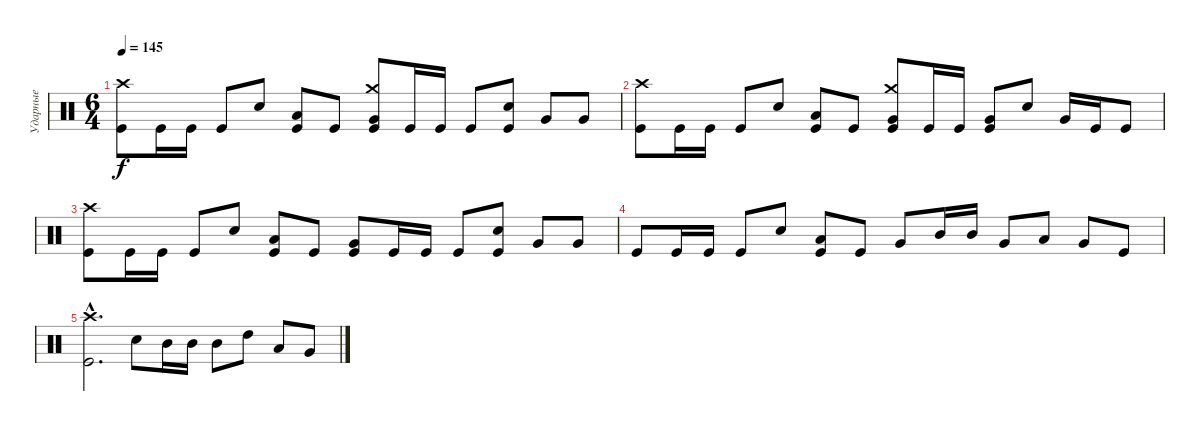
\track ("Ударные" "Ударные") {instrument percussion}
\staff {score}
\articulation defaults
\ts (6 4)
\tempo 145
\clef neutral
\ks c
("Crash high (hit)" "Kick (hit)").8{dy f} "Kick (hit)".16 "Kick (hit)".16 "Kick (hit)".8 "Electric Snare (hit)".8 ("Low Tom (hit)" "Kick (hit)").8 "Kick (hit)".8 ("Crash medium (hit)" "Very Low Tom (hit)" "Kick (hit)").8 "Kick (hit)".16 "Kick (hit)".16 "Kick (hit)".8 ("Electric Snare (hit)" "Kick (hit)").8 "Very Low Tom (hit)".8 "Very Low Tom (hit)".8 |
("Crash high (hit)" "Kick (hit)").8 "Kick (hit)".16 "Kick (hit)".16 "Kick (hit)".8 "Electric Snare (hit)".8 ("Low Tom (hit)" "Kick (hit)").8 "Kick (hit)".8 ("Crash medium (hit)" "Very Low Tom (hit)" "Kick (hit)").8 "Kick (hit)".16 "Kick (hit)".16 ("Very Low Tom (hit)" "Kick (hit)").8 "Electric Snare (hit)".8 "Very Low Tom (hit)".16 "Kick (hit)".16 "Kick (hit)".8 |
("Crash high (hit)" "Kick (hit)").8 "Kick (hit)".16 "Kick (hit)".16 "Kick (hit)".8 "Electric Snare (hit)".8 ("Low Tom (hit)" "Kick (hit)").8 "Kick (hit)".8 ("Very Low Tom (hit)" "Kick (hit)").8 "Kick (hit)".16 "Kick (hit)".16 "Kick (hit)".8 ("Electric Snare (hit)" "Kick (hit)").8 "Very Low Tom (hit)".8 "Very Low Tom (hit)".8 |
"Kick (hit)".8 "Kick (hit)".16 "Kick (hit)".16 "Kick (hit)".8 "Electric Snare (hit)".8 ("Low Tom (hit)" "Kick (hit)").8 "Kick (hit)".8 "Very Low Tom (hit)".8 "Mid Tom (hit)".16 "Mid Tom (hit)".16 "Very Low Tom (hit)".8 "Low Tom (hit)".8 "Very Low Tom (hit)".8 "Kick (hit)".8 |
("Crash high (hit)"{hac} "Kick (hit)"{hac}).2{d} "Electric Snare (hit)".8 "Mid Tom (hit)".16 "Mid Tom (hit)".16 "Mid Tom (hit)".8 "High Tom (hit)".8 "Low Tom (hit)".8 "Very Low Tom (hit)".8
